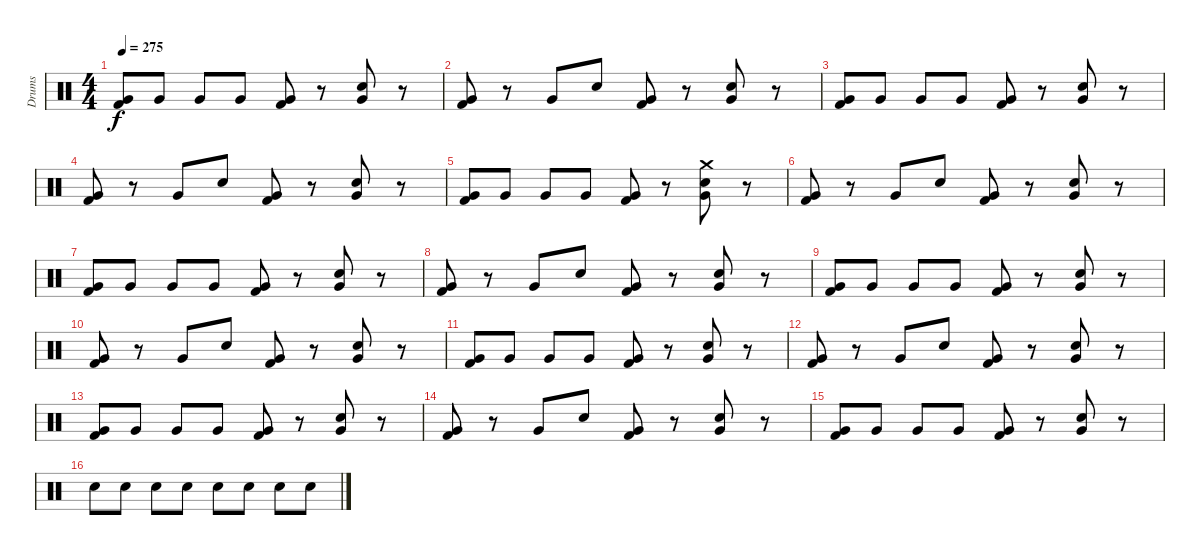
\track ("Drums" "Drums") {instrument percussion}
\staff {score}
\articulation defaults
\ts (4 4)
\tempo 275
\clef neutral
\ks c
("Very Low Tom (hit)" "Kick (hit) 2").8{dy f} "Very Low Tom (hit)".8 "Very Low Tom (hit)".8 "Very Low Tom (hit)".8 ("Very Low Tom (hit)" "Kick (hit) 2").8 r.8 ("Very Low Tom (hit)" "Electric Snare (hit)").8 r.8 |
("Very Low Tom (hit)" "Kick (hit) 2").8 r.8 "Very Low Tom (hit)".8 "Electric Snare (hit)".8 ("Very Low Tom (hit)" "Kick (hit) 2").8 r.8 ("Very Low Tom (hit)" "Electric Snare (hit)").8 r.8 |
("Very Low Tom (hit)" "Kick (hit) 2").8 "Very Low Tom (hit)".8 "Very Low Tom (hit)".8 "Very Low Tom (hit)".8 ("Very Low Tom (hit)" "Kick (hit) 2").8 r.8 ("Very Low Tom (hit)" "Electric Snare (hit)").8 r.8 |
("Very Low Tom (hit)" "Kick (hit) 2").8 r.8 "Very Low Tom (hit)".8 "Electric Snare (hit)".8 ("Very Low Tom (hit)" "Kick (hit) 2").8 r.8 ("Very Low Tom (hit)" "Electric Snare (hit)").8 r.8 |
("Very Low Tom (hit)" "Kick (hit) 2").8 "Very Low Tom (hit)".8 "Very Low Tom (hit)".8 "Very Low Tom (hit)".8 ("Very Low Tom (hit)" "Kick (hit) 2").8 r.8 ("Crash medium (hit)" "Very Low Tom (hit)" "Electric Snare (hit)").8 r.8 |
("Very Low Tom (hit)" "Kick (hit) 2").8 r.8 "Very Low Tom (hit)".8 "Electric Snare (hit)".8 ("Very Low Tom (hit)" "Kick (hit) 2").8 r.8 ("Very Low Tom (hit)" "Electric Snare (hit)").8 r.8 |
("Very Low Tom (hit)" "Kick (hit) 2").8 "Very Low Tom (hit)".8 "Very Low Tom (hit)".8 "Very Low Tom (hit)".8 ("Very Low Tom (hit)" "Kick (hit) 2").8 r.8 ("Very Low Tom (hit)" "Electric Snare (hit)").8 r.8 |
("Very Low Tom (hit)" "Kick (hit) 2").8 r.8 "Very Low Tom (hit)".8 "Electric Snare (hit)".8 ("Very Low Tom (hit)" "Kick (hit) 2").8 r.8 ("Very Low Tom (hit)" "Electric Snare (hit)").8 r.8 |
("Very Low Tom (hit)" "Kick (hit) 2").8 "Very Low Tom (hit)".8 "Very Low Tom (hit)".8 "Very Low Tom (hit)".8 ("Very Low Tom (hit)" "Kick (hit) 2").8 r.8 ("Very Low Tom (hit)" "Electric Snare (hit)").8 r.8 |
("Very Low Tom (hit)" "Kick (hit) 2").8 r.8 "Very Low Tom (hit)".8 "Electric Snare (hit)".8 ("Very Low Tom (hit)" "Kick (hit) 2").8 r.8 ("Very Low Tom (hit)" "Electric Snare (hit)").8 r.8 |
("Very Low Tom (hit)" "Kick (hit) 2").8 "Very Low Tom (hit)".8 "Very Low Tom (hit)".8 "Very Low Tom (hit)".8 ("Very Low Tom (hit)" "Kick (hit) 2").8 r.8 ("Very Low Tom (hit)" "Electric Snare (hit)").8 r.8 |
("Very Low Tom (hit)" "Kick (hit) 2").8 r.8 "Very Low Tom (hit)".8 "Electric Snare (hit)".8 ("Very Low Tom (hit)" "Kick (hit) 2").8 r.8 ("Very Low Tom (hit)" "Electric Snare (hit)").8 r.8 |
("Very Low Tom (hit)" "Kick (hit) 2").8 "Very Low Tom (hit)".8 "Very Low Tom (hit)".8 "Very Low Tom (hit)".8 ("Very Low Tom (hit)" "Kick (hit) 2").8 r.8 ("Very Low Tom (hit)" "Electric Snare (hit)").8 r.8 |
("Very Low Tom (hit)" "Kick (hit) 2").8 r.8 "Very Low Tom (hit)".8 "Electric Snare (hit)".8 ("Very Low Tom (hit)" "Kick (hit) 2").8 r.8 ("Very Low Tom (hit)" "Electric Snare (hit)").8 r.8 |
("Very Low Tom (hit)" "Kick (hit) 2").8 "Very Low Tom (hit)".8 "Very Low Tom (hit)".8 "Very Low Tom (hit)".8 ("Very Low Tom (hit)" "Kick (hit) 2").8 r.8 ("Very Low Tom (hit)" "Electric Snare (hit)").8 r.8 |
"Electric Snare (hit)".8 "Electric Snare (hit)".8 "Electric Snare (hit)".8 "Electric Snare (hit)".8 "Electric Snare (hit)".8 "Electric Snare (hit)".8 "Electric Snare (hit)".8 "Electric Snare (hit)".8
